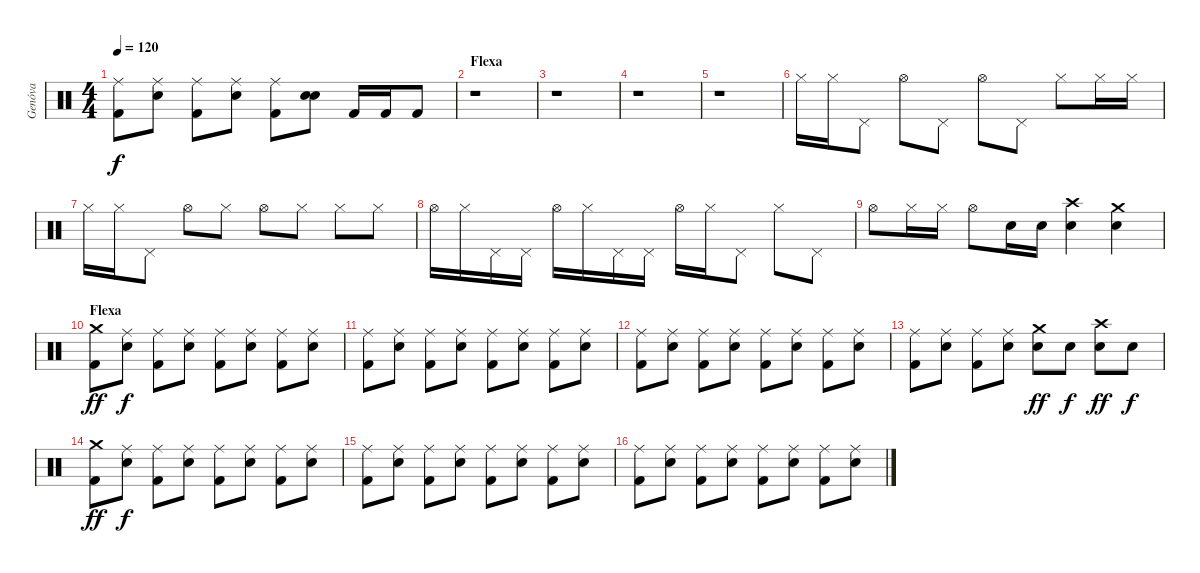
\track ("Genóva" "Genóva") {instrument percussion}
\staff {score}
\articulation defaults
\ts (4 4)
\tempo 120
\clef neutral
\ks c
("Kick (hit) 2" "Ride (middle)").8{dy f} ("Snare (hit) 2" "Ride (middle)").8 ("Kick (hit) 2" "Ride (middle)").8 ("Snare (hit) 2" "Ride (middle)").8 ("Kick (hit) 2" "Ride (middle)").8 ("Snare (hit) 2" "Snare (hit) 2").8{bd 120} "Kick (hit) 2".16 "Kick (hit) 2".16 "Kick (hit) 2".8 |
\section ("" "Flexa")
r.1 |
r.1 |
r.1 |
r.1 |
"Hi-Hat (closed)".16 "Hi-Hat (closed)".16 "Pedal Hi-Hat (hit)".8 "Hi-Hat (open)".8 "Pedal Hi-Hat (hit)".8 "Hi-Hat (open)".8 "Pedal Hi-Hat (hit)".8 "Hi-Hat (closed)".8 "Hi-Hat (closed)".16 "Hi-Hat (closed)".16 |
"Hi-Hat (closed)".16 "Hi-Hat (closed)".16 "Pedal Hi-Hat (hit)".8 "Hi-Hat (open)".8 "Hi-Hat (closed)".8 "Hi-Hat (open)".8 "Hi-Hat (closed)".8 "Hi-Hat (closed)".8 "Hi-Hat (closed)".8 |
"Hi-Hat (open)".16 "Hi-Hat (closed)".16 "Pedal Hi-Hat (hit)".16 "Pedal Hi-Hat (hit)".16 "Hi-Hat (open)".16 "Hi-Hat (closed)".16 "Pedal Hi-Hat (hit)".16 "Pedal Hi-Hat (hit)".16 "Hi-Hat (open)".16 "Hi-Hat (closed)".16 "Pedal Hi-Hat (hit)".8 "Hi-Hat (closed)".8 "Pedal Hi-Hat (hit)".8 |
"Hi-Hat (open)".8 "Hi-Hat (closed)".16 "Hi-Hat (closed)".16 "Hi-Hat (open)".8 "Snare (hit) 2".16 "Snare (hit) 2".16 ("Snare (hit) 2" "Crash high (hit)").4 ("Snare (hit) 2" "Crash medium (hit)").4 |
\section ("" "Flexa")
("Kick (hit) 2" "Crash medium (hit)").8{dy ff} ("Snare (hit) 2" "Ride (middle)").8{dy f} ("Kick (hit) 2" "Ride (middle)").8 ("Snare (hit) 2" "Ride (middle)").8 ("Kick (hit) 2" "Ride (middle)").8 ("Snare (hit) 2" "Ride (middle)").8 ("Kick (hit) 2" "Ride (middle)").8 ("Snare (hit) 2" "Ride (middle)").8 |
("Kick (hit) 2" "Ride (middle)").8 ("Snare (hit) 2" "Ride (middle)").8 ("Kick (hit) 2" "Ride (middle)").8 ("Snare (hit) 2" "Ride (middle)").8 ("Kick (hit) 2" "Ride (middle)").8 ("Snare (hit) 2" "Ride (middle)").8 ("Kick (hit) 2" "Ride (middle)").8 ("Snare (hit) 2" "Ride (middle)").8 |
("Kick (hit) 2" "Ride (middle)").8 ("Snare (hit) 2" "Ride (middle)").8 ("Kick (hit) 2" "Ride (middle)").8 ("Snare (hit) 2" "Ride (middle)").8 ("Kick (hit) 2" "Ride (middle)").8 ("Snare (hit) 2" "Ride (middle)").8 ("Kick (hit) 2" "Ride (middle)").8 ("Snare (hit) 2" "Ride (middle)").8 |
("Kick (hit) 2" "Ride (middle)").8 ("Snare (hit) 2" "Ride (middle)").8 ("Kick (hit) 2" "Ride (middle)").8 ("Snare (hit) 2" "Ride (middle)").8 ("Snare (hit) 2" "Crash medium (hit)").8{dy ff} "Snare (hit) 2".8{dy f} ("Snare (hit) 2" "Crash high (hit)").8{dy ff} "Snare (hit) 2".8{dy f} |
("Kick (hit) 2" "Crash medium (hit)").8{dy ff} ("Snare (hit) 2" "Ride (middle)").8{dy f} ("Kick (hit) 2" "Ride (middle)").8 ("Snare (hit) 2" "Ride (middle)").8 ("Kick (hit) 2" "Ride (middle)").8 ("Snare (hit) 2" "Ride (middle)").8 ("Kick (hit) 2" "Ride (middle)").8 ("Snare (hit) 2" "Ride (middle)").8 |
("Kick (hit) 2" "Ride (middle)").8 ("Snare (hit) 2" "Ride (middle)").8 ("Kick (hit) 2" "Ride (middle)").8 ("Snare (hit) 2" "Ride (middle)").8 ("Kick (hit) 2" "Ride (middle)").8 ("Snare (hit) 2" "Ride (middle)").8 ("Kick (hit) 2" "Ride (middle)").8 ("Snare (hit) 2" "Ride (middle)").8 |
("Kick (hit) 2" "Ride (middle)").8 ("Snare (hit) 2" "Ride (middle)").8 ("Kick (hit) 2" "Ride (middle)").8 ("Snare (hit) 2" "Ride (middle)").8 ("Kick (hit) 2" "Ride (middle)").8 ("Snare (hit) 2" "Ride (middle)").8 ("Kick (hit) 2" "Ride (middle)").8 ("Snare (hit) 2" "Ride (middle)").8
